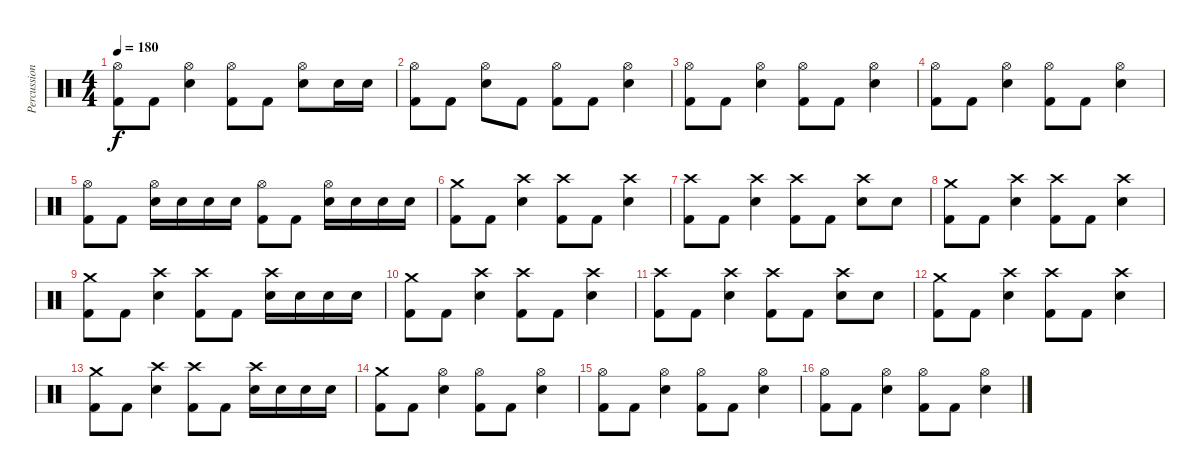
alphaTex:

\track ("Percussions" "Percussion") {instrument percussion}
\staff {score}
\articulation defaults
\ts (4 4)
\tempo 180
\clef neutral
\ks c
("Hi-Hat (open)" "Kick (hit) 2").8{dy f} "Kick (hit) 2".8 ("Electric Snare (hit)" "Hi-Hat (open)").4 ("Hi-Hat (open)" "Kick (hit) 2").8 "Kick (hit) 2".8 ("Electric Snare (hit)" "Hi-Hat (open)").8 "Electric Snare (hit)".16 "Electric Snare (hit)".16 |
("Hi-Hat (open)" "Kick (hit) 2").8 "Kick (hit) 2".8 ("Electric Snare (hit)" "Hi-Hat (open)").8 "Kick (hit) 2".8 ("Hi-Hat (open)" "Kick (hit) 2").8 "Kick (hit) 2".8 ("Electric Snare (hit)" "Hi-Hat (open)").4 |
("Hi-Hat (open)" "Kick (hit) 2").8 "Kick (hit) 2".8 ("Electric Snare (hit)" "Hi-Hat (open)").4 ("Hi-Hat (open)" "Kick (hit) 2").8 "Kick (hit) 2".8 ("Electric Snare (hit)" "Hi-Hat (open)").4 |
("Hi-Hat (open)" "Kick (hit) 2").8 "Kick (hit) 2".8 ("Electric Snare (hit)" "Hi-Hat (open)").4 ("Hi-Hat (open)" "Kick (hit) 2").8 "Kick (hit) 2".8 ("Electric Snare (hit)" "Hi-Hat (open)").4 |
("Hi-Hat (open)" "Kick (hit) 2").8 "Kick (hit) 2".8 ("Electric Snare (hit)" "Hi-Hat (open)").16 "Electric Snare (hit)".16 "Electric Snare (hit)".16 "Electric Snare (hit)".16 ("Hi-Hat (open)" "Kick (hit) 2").8 "Kick (hit) 2".8 ("Electric Snare (hit)" "Hi-Hat (open)").16 "Electric Snare (hit)".16 "Electric Snare (hit)".16 "Electric Snare (hit)".16 |
("Crash medium (hit)" "Kick (hit) 2").8 "Kick (hit) 2".8 ("Electric Snare (hit)" "Crash high (hit)").4 ("Crash high (hit)" "Kick (hit) 2").8 "Kick (hit) 2".8 ("Electric Snare (hit)" "Crash high (hit)").4 |
("Crash high (hit)" "Kick (hit) 2").8 "Kick (hit) 2".8 ("Electric Snare (hit)" "Crash high (hit)").4 ("Crash high (hit)" "Kick (hit) 2").8 "Kick (hit) 2".8 ("Electric Snare (hit)" "Crash high (hit)").8 "Electric Snare (hit)".8 |
("Crash medium (hit)" "Kick (hit) 2").8 "Kick (hit) 2".8 ("Electric Snare (hit)" "Crash high (hit)").4 ("Crash high (hit)" "Kick (hit) 2").8 "Kick (hit) 2".8 ("Electric Snare (hit)" "Crash high (hit)").4 |
("Crash medium (hit)" "Kick (hit) 2").8 "Kick (hit) 2".8 ("Electric Snare (hit)" "Crash high (hit)").4 ("Crash high (hit)" "Kick (hit) 2").8 "Kick (hit) 2".8 ("Electric Snare (hit)" "Crash high (hit)").16 "Electric Snare (hit)".16 "Electric Snare (hit)".16 "Electric Snare (hit)".16 |
("Crash medium (hit)" "Kick (hit) 2").8 "Kick (hit) 2".8 ("Electric Snare (hit)" "Crash high (hit)").4 ("Crash high (hit)" "Kick (hit) 2").8 "Kick (hit) 2".8 ("Electric Snare (hit)" "Crash high (hit)").4 |
("Crash high (hit)" "Kick (hit) 2").8 "Kick (hit) 2".8 ("Electric Snare (hit)" "Crash high (hit)").4 ("Crash high (hit)" "Kick (hit) 2").8 "Kick (hit) 2".8 ("Electric Snare (hit)" "Crash high (hit)").8 "Electric Snare (hit)".8 |
("Crash medium (hit)" "Kick (hit) 2").8 "Kick (hit) 2".8 ("Electric Snare (hit)" "Crash high (hit)").4 ("Crash high (hit)" "Kick (hit) 2").8 "Kick (hit) 2".8 ("Electric Snare (hit)" "Crash high (hit)").4 |
("Crash medium (hit)" "Kick (hit) 2").8 "Kick (hit) 2".8 ("Electric Snare (hit)" "Crash high (hit)").4 ("Crash high (hit)" "Kick (hit) 2").8 "Kick (hit) 2".8 ("Electric Snare (hit)" "Crash high (hit)").16 "Electric Snare (hit)".16 "Electric Snare (hit)".16 "Electric Snare (hit)".16 |
("Crash medium (hit)" "Kick (hit) 2").8 "Kick (hit) 2".8 ("Electric Snare (hit)" "Hi-Hat (open)").4 ("Hi-Hat (open)" "Kick (hit) 2").8 "Kick (hit) 2".8 ("Electric Snare (hit)" "Hi-Hat (open)").4 |
("Hi-Hat (open)" "Kick (hit) 2").8 "Kick (hit) 2".8 ("Electric Snare (hit)" "Hi-Hat (open)").4 ("Hi-Hat (open)" "Kick (hit) 2").8 "Kick (hit) 2".8 ("Electric Snare (hit)" "Hi-Hat (open)").4 |
("Hi-Hat (open)" "Kick (hit) 2").8 "Kick (hit) 2".8 ("Electric Snare (hit)" "Hi-Hat (open)").4 ("Hi-Hat (open)" "Kick (hit) 2").8 "Kick (hit) 2".8 ("Electric Snare (hit)" "Hi-Hat (open)").4
